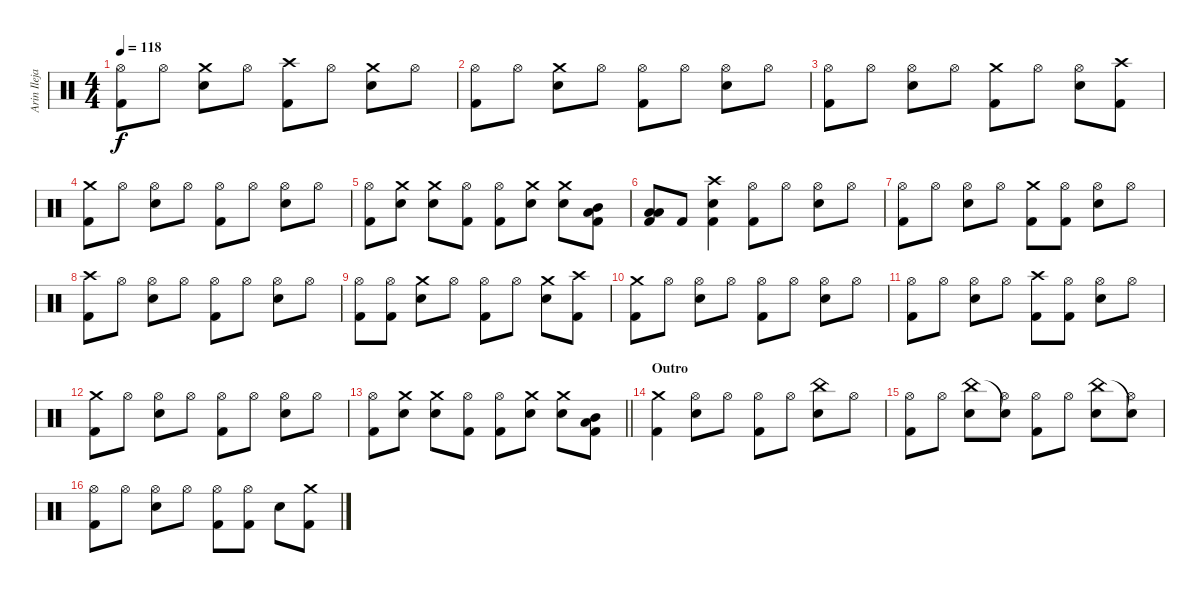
\track ("Arin Ilejay" "Arin Ileja") {instrument percussion bank 164}
\staff {score}
\articulation defaults
\ts (4 4)
\tempo 118
\clef neutral
\ks c
("Hi-Hat (open)" "Kick (hit) 2").8{dy f} "Hi-Hat (open)".8 ("Crash medium (hit)" "Electric Snare (hit)").8 "Hi-Hat (open)".8 ("Crash high (hit)" "Kick (hit) 2").8 "Hi-Hat (open)".8 ("Crash medium (hit)" "Electric Snare (hit)").8 "Hi-Hat (open)".8 |
("Hi-Hat (open)" "Kick (hit) 2").8 "Hi-Hat (open)".8 ("Crash medium (hit)" "Electric Snare (hit)").8 "Hi-Hat (open)".8 ("Hi-Hat (open)" "Kick (hit) 2").8 "Hi-Hat (open)".8 ("Hi-Hat (open)" "Electric Snare (hit)").8 "Hi-Hat (open)".8 |
("Hi-Hat (open)" "Kick (hit) 2").8 "Hi-Hat (open)".8 ("Hi-Hat (open)" "Electric Snare (hit)").8 "Hi-Hat (open)".8 ("Crash medium (hit)" "Kick (hit) 2").8 "Hi-Hat (open)".8 ("Hi-Hat (open)" "Electric Snare (hit)").8 ("Crash high (hit)" "Kick (hit) 2").8 |
("Crash medium (hit)" "Kick (hit) 2").8 "Hi-Hat (open)".8 ("Hi-Hat (open)" "Electric Snare (hit)").8 "Hi-Hat (open)".8 ("Hi-Hat (open)" "Kick (hit) 2").8 "Hi-Hat (open)".8 ("Hi-Hat (open)" "Electric Snare (hit)").8 "Hi-Hat (open)".8 |
("Hi-Hat (open)" "Kick (hit) 2").8 ("Crash medium (hit)" "Electric Snare (hit)").8 ("Crash medium (hit)" "Electric Snare (hit)").8 ("Hi-Hat (open)" "Kick (hit) 2").8 ("Hi-Hat (open)" "Kick (hit) 2").8 ("Crash medium (hit)" "Electric Snare (hit)").8 ("Crash medium (hit)" "Electric Snare (hit)").8 ("Mid Tom (hit)" "Low Floor Tom (hit)" "Kick (hit) 2").8 |
("Low Tom (hit)" "Low Floor Tom (hit)" "Kick (hit) 2").8 "Kick (hit) 2".8 ("Crash high (hit)" "Electric Snare (hit)" "Kick (hit) 2").4 ("Hi-Hat (open)" "Kick (hit) 2").8 "Hi-Hat (open)".8 ("Hi-Hat (open)" "Electric Snare (hit)").8 "Hi-Hat (open)".8 |
("Hi-Hat (open)" "Kick (hit) 2").8 "Hi-Hat (open)".8 ("Hi-Hat (open)" "Electric Snare (hit)").8 "Hi-Hat (open)".8 ("Crash medium (hit)" "Kick (hit) 2").8 ("Hi-Hat (open)" "Kick (hit) 2").8 ("Hi-Hat (open)" "Electric Snare (hit)").8 "Hi-Hat (open)".8 |
("Crash high (hit)" "Kick (hit) 2").8 "Hi-Hat (open)".8 ("Hi-Hat (open)" "Electric Snare (hit)").8 "Hi-Hat (open)".8 ("Hi-Hat (open)" "Kick (hit) 2").8 "Hi-Hat (open)".8 ("Hi-Hat (open)" "Electric Snare (hit)").8 "Hi-Hat (open)".8 |
("Hi-Hat (open)" "Kick (hit) 2").8 ("Hi-Hat (open)" "Kick (hit) 2").8 ("Crash medium (hit)" "Electric Snare (hit)").8 "Hi-Hat (open)".8 ("Hi-Hat (open)" "Kick (hit) 2").8 "Hi-Hat (open)".8 ("Crash medium (hit)" "Electric Snare (hit)").8 ("Crash high (hit)" "Kick (hit) 2").8 |
("Crash medium (hit)" "Kick (hit) 2").8 "Hi-Hat (open)".8 ("Hi-Hat (open)" "Electric Snare (hit)").8 "Hi-Hat (open)".8 ("Hi-Hat (open)" "Kick (hit) 2").8 "Hi-Hat (open)".8 ("Hi-Hat (open)" "Electric Snare (hit)").8 "Hi-Hat (open)".8 |
("Hi-Hat (open)" "Kick (hit) 2").8 "Hi-Hat (open)".8 ("Hi-Hat (open)" "Electric Snare (hit)").8 "Hi-Hat (open)".8 ("Crash high (hit)" "Kick (hit) 2").8 ("Hi-Hat (open)" "Kick (hit) 2").8 ("Hi-Hat (open)" "Electric Snare (hit)").8 "Hi-Hat (open)".8 |
("Crash medium (hit)" "Kick (hit) 2").8 "Hi-Hat (open)".8 ("Hi-Hat (open)" "Electric Snare (hit)").8 "Hi-Hat (open)".8 ("Hi-Hat (open)" "Kick (hit) 2").8 "Hi-Hat (open)".8 ("Hi-Hat (open)" "Electric Snare (hit)").8 "Hi-Hat (open)".8 |
\barLineRight lightlight
("Hi-Hat (open)" "Kick (hit) 2").8 ("Crash medium (hit)" "Electric Snare (hit)").8 ("Crash medium (hit)" "Electric Snare (hit)").8 ("Hi-Hat (open)" "Kick (hit) 2").8 ("Hi-Hat (open)" "Kick (hit) 2").8 ("Crash medium (hit)" "Electric Snare (hit)").8 ("Crash medium (hit)" "Electric Snare (hit)").8 ("Mid Tom (hit)" "Low Floor Tom (hit)" "Kick (hit) 2").8 |
\section ("" "Outro")
("Crash medium (hit)" "Kick (hit) 2").4 ("Hi-Hat (open)" "Electric Snare (hit)").8 "Hi-Hat (open)".8 ("Hi-Hat (open)" "Kick (hit) 2").8 "Hi-Hat (open)".8 ("China (hit)" "Electric Snare (hit)").8 "Hi-Hat (open)".8 |
("Hi-Hat (open)" "Kick (hit) 2").8 "Hi-Hat (open)".8 ("China (hit)" "Electric Snare (hit)").8 ("Snare (hit)"{t} "Hi-Hat (open)").8 ("Hi-Hat (open)" "Kick (hit) 2").8 "Hi-Hat (open)".8 ("China (hit)" "Electric Snare (hit)").8 ("Snare (hit)"{t} "Hi-Hat (open)").8 |
("Hi-Hat (open)" "Kick (hit) 2").8 "Hi-Hat (open)".8 ("Hi-Hat (open)" "Electric Snare (hit)").8 "Hi-Hat (open)".8 ("Hi-Hat (open)" "Kick (hit) 2").8 ("Hi-Hat (open)" "Kick (hit) 2").8 "Electric Snare (hit)".8 ("Crash medium (hit)" "Kick (hit) 2").8
